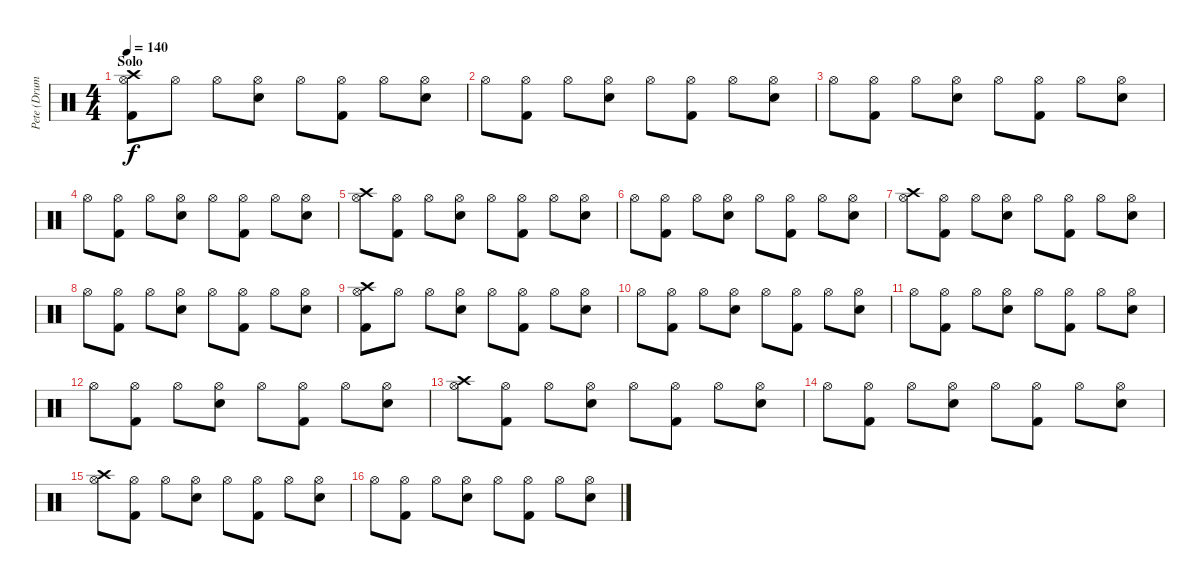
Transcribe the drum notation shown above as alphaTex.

\track ("Pete (Drums)" "Pete (Drum") {instrument percussion}
\staff {score}
\articulation defaults
\ts (4 4)
\section ("" "Solo")
\tempo 140
\clef neutral
\ks c
("Hi-Hat (open)" "Kick (hit) 2" "Crash high (hit)").8{dy f} "Hi-Hat (open)".8 "Hi-Hat (open)".8 ("Hi-Hat (open)" "Snare (hit) 2").8 "Hi-Hat (open)".8 ("Hi-Hat (open)" "Kick (hit) 2").8 "Hi-Hat (open)".8 ("Hi-Hat (open)" "Snare (hit) 2").8 |
"Hi-Hat (open)".8 ("Hi-Hat (open)" "Kick (hit) 2").8 "Hi-Hat (open)".8 ("Hi-Hat (open)" "Snare (hit) 2").8 "Hi-Hat (open)".8 ("Hi-Hat (open)" "Kick (hit) 2").8 "Hi-Hat (open)".8 ("Hi-Hat (open)" "Snare (hit) 2").8 |
"Hi-Hat (open)".8 ("Hi-Hat (open)" "Kick (hit) 2").8 "Hi-Hat (open)".8 ("Hi-Hat (open)" "Snare (hit) 2").8 "Hi-Hat (open)".8 ("Hi-Hat (open)" "Kick (hit) 2").8 "Hi-Hat (open)".8 ("Hi-Hat (open)" "Snare (hit) 2").8 |
"Hi-Hat (open)".8 ("Hi-Hat (open)" "Kick (hit) 2").8 "Hi-Hat (open)".8 ("Hi-Hat (open)" "Snare (hit) 2").8 "Hi-Hat (open)".8 ("Hi-Hat (open)" "Kick (hit) 2").8 "Hi-Hat (open)".8 ("Hi-Hat (open)" "Snare (hit) 2").8 |
("Hi-Hat (open)" "Crash high (hit)").8 ("Hi-Hat (open)" "Kick (hit) 2").8 "Hi-Hat (open)".8 ("Hi-Hat (open)" "Snare (hit) 2").8 "Hi-Hat (open)".8 ("Hi-Hat (open)" "Kick (hit) 2").8 "Hi-Hat (open)".8 ("Hi-Hat (open)" "Snare (hit) 2").8 |
"Hi-Hat (open)".8 ("Hi-Hat (open)" "Kick (hit) 2").8 "Hi-Hat (open)".8 ("Hi-Hat (open)" "Snare (hit) 2").8 "Hi-Hat (open)".8 ("Hi-Hat (open)" "Kick (hit) 2").8 "Hi-Hat (open)".8 ("Hi-Hat (open)" "Snare (hit) 2").8 |
("Hi-Hat (open)" "Crash high (hit)").8 ("Hi-Hat (open)" "Kick (hit) 2").8 "Hi-Hat (open)".8 ("Hi-Hat (open)" "Snare (hit) 2").8 "Hi-Hat (open)".8 ("Hi-Hat (open)" "Kick (hit) 2").8 "Hi-Hat (open)".8 ("Hi-Hat (open)" "Snare (hit) 2").8 |
"Hi-Hat (open)".8 ("Hi-Hat (open)" "Kick (hit) 2").8 "Hi-Hat (open)".8 ("Hi-Hat (open)" "Snare (hit) 2").8 "Hi-Hat (open)".8 ("Hi-Hat (open)" "Kick (hit) 2").8 "Hi-Hat (open)".8 ("Hi-Hat (open)" "Snare (hit) 2").8 |
("Hi-Hat (open)" "Kick (hit) 2" "Crash high (hit)").8 "Hi-Hat (open)".8 "Hi-Hat (open)".8 ("Hi-Hat (open)" "Snare (hit) 2").8 "Hi-Hat (open)".8 ("Hi-Hat (open)" "Kick (hit) 2").8 "Hi-Hat (open)".8 ("Hi-Hat (open)" "Snare (hit) 2").8 |
"Hi-Hat (open)".8 ("Hi-Hat (open)" "Kick (hit) 2").8 "Hi-Hat (open)".8 ("Hi-Hat (open)" "Snare (hit) 2").8 "Hi-Hat (open)".8 ("Hi-Hat (open)" "Kick (hit) 2").8 "Hi-Hat (open)".8 ("Hi-Hat (open)" "Snare (hit) 2").8 |
"Hi-Hat (open)".8 ("Hi-Hat (open)" "Kick (hit) 2").8 "Hi-Hat (open)".8 ("Hi-Hat (open)" "Snare (hit) 2").8 "Hi-Hat (open)".8 ("Hi-Hat (open)" "Kick (hit) 2").8 "Hi-Hat (open)".8 ("Hi-Hat (open)" "Snare (hit) 2").8 |
"Hi-Hat (open)".8 ("Hi-Hat (open)" "Kick (hit) 2").8 "Hi-Hat (open)".8 ("Hi-Hat (open)" "Snare (hit) 2").8 "Hi-Hat (open)".8 ("Hi-Hat (open)" "Kick (hit) 2").8 "Hi-Hat (open)".8 ("Hi-Hat (open)" "Snare (hit) 2").8 |
("Hi-Hat (open)" "Crash high (hit)").8 ("Hi-Hat (open)" "Kick (hit) 2").8 "Hi-Hat (open)".8 ("Hi-Hat (open)" "Snare (hit) 2").8 "Hi-Hat (open)".8 ("Hi-Hat (open)" "Kick (hit) 2").8 "Hi-Hat (open)".8 ("Hi-Hat (open)" "Snare (hit) 2").8 |
"Hi-Hat (open)".8 ("Hi-Hat (open)" "Kick (hit) 2").8 "Hi-Hat (open)".8 ("Hi-Hat (open)" "Snare (hit) 2").8 "Hi-Hat (open)".8 ("Hi-Hat (open)" "Kick (hit) 2").8 "Hi-Hat (open)".8 ("Hi-Hat (open)" "Snare (hit) 2").8 |
("Hi-Hat (open)" "Crash high (hit)").8 ("Hi-Hat (open)" "Kick (hit) 2").8 "Hi-Hat (open)".8 ("Hi-Hat (open)" "Snare (hit) 2").8 "Hi-Hat (open)".8 ("Hi-Hat (open)" "Kick (hit) 2").8 "Hi-Hat (open)".8 ("Hi-Hat (open)" "Snare (hit) 2").8 |
"Hi-Hat (open)".8 ("Hi-Hat (open)" "Kick (hit) 2").8 "Hi-Hat (open)".8 ("Hi-Hat (open)" "Snare (hit) 2").8 "Hi-Hat (open)".8 ("Hi-Hat (open)" "Kick (hit) 2").8 "Hi-Hat (open)".8 ("Hi-Hat (open)" "Snare (hit) 2").8
